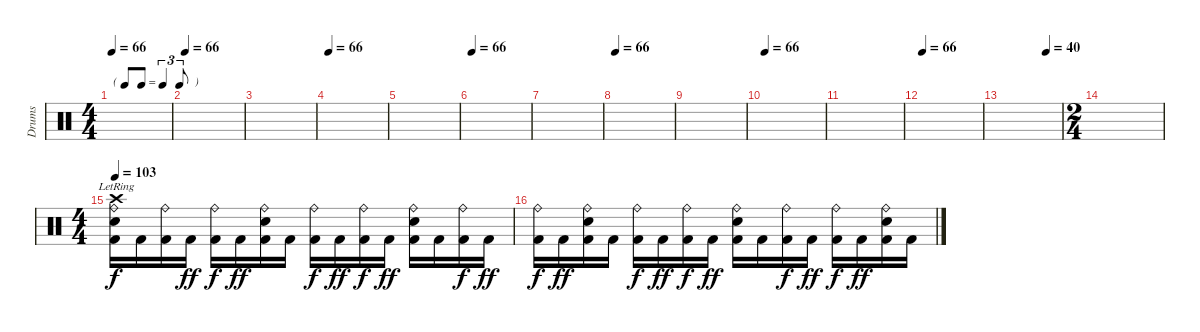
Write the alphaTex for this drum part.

\track ("Drums" "Drums") {instrument percussion}
\staff {score}
\articulation defaults
\ts (4 4)
\tf triplet8th
\tempo 66
\clef neutral
\ks c
|
\tempo 66
|
|
\tempo 66
|
|
\tempo 66
|
|
\tempo 66
|
|
\tempo 66
|
|
\tempo 66
|
\tempo (40 0.75)
|
\ts (2 4)
|
\ts (4 4)
\tempo 103
("Ride (bell)"{lr} "Crash high (hit)"{lr} "Electric Snare (hit)" "Kick (hit) 2").16 "Kick (hit) 2".16 ("Ride (bell)" "Kick (hit) 2").16{dy f} "Kick (hit) 2".16{dy ff} ("Ride (bell)" "Kick (hit) 2").16{dy f} "Kick (hit) 2".16{dy ff} ("Ride (bell)" "Electric Snare (hit)" "Kick (hit) 2").16 "Kick (hit) 2".16 ("Ride (bell)" "Kick (hit) 2").16{dy f} "Kick (hit) 2".16{dy ff} ("Ride (bell)" "Kick (hit) 2").16{dy f} "Kick (hit) 2".16{dy ff} ("Ride (bell)" "Electric Snare (hit)" "Kick (hit) 2").16 "Kick (hit) 2".16 ("Ride (bell)" "Kick (hit) 2").16{dy f} "Kick (hit) 2".16{dy ff} |
("Ride (bell)" "Kick (hit) 2").16{dy f} "Kick (hit) 2".16{dy ff} ("Ride (bell)" "Electric Snare (hit)" "Kick (hit) 2").16 "Kick (hit) 2".16 ("Ride (bell)" "Kick (hit) 2").16{dy f} "Kick (hit) 2".16{dy ff} ("Ride (bell)" "Kick (hit) 2").16{dy f} "Kick (hit) 2".16{dy ff} ("Ride (bell)" "Electric Snare (hit)" "Kick (hit) 2").16 "Kick (hit) 2".16 ("Ride (bell)" "Kick (hit) 2").16{dy f} "Kick (hit) 2".16{dy ff} ("Ride (bell)" "Kick (hit) 2").16{dy f} "Kick (hit) 2".16{dy ff} ("Ride (bell)" "Electric Snare (hit)" "Kick (hit) 2").16 "Kick (hit) 2".16
